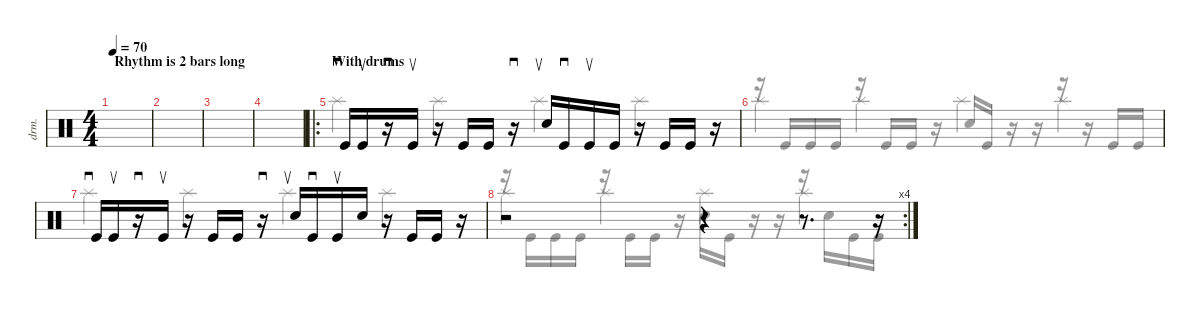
\defaultSystemsLayout 4
\hideDynamics
\bracketExtendMode nobrackets
\track ("Drumkit" "drm.") {instrument percussion}
\staff {score}
\articulation defaults
\voice
\ts (4 4)
\beaming (8 2 2 2 2)
\section ("" "Rhythm is 2 bars long")
\tempo 70
\clef neutral
\ks aminor
|
|
|
|
\ro
\section ("" "With drums ")
"Kick (hit)".16{sd beam Up} "Kick (hit)".16{su beam Up} r.16{sd beam Up} "Kick (hit)".16{su beam Up} r.16{beam Up} "Kick (hit)".16{beam Up} "Kick (hit)".16{beam Up} r.16{sd beam Up} "Snare (hit) 2".16{su beam Up} "Kick (hit)".16{sd beam Up} "Kick (hit)".16{su beam Up} "Kick (hit)".16{beam Up} r.16{beam Up} "Kick (hit)".16{beam Up} "Kick (hit)".16{beam Up} r.16{beam Up} |
|
"Kick (hit)".16{sd beam Up} "Kick (hit)".16{su beam Up} r.16{sd beam Up} "Kick (hit)".16{su beam Up} r.16{beam Up} "Kick (hit)".16{beam Up} "Kick (hit)".16{beam Up} r.16{sd beam Up} "Snare (hit) 2".16{su beam Up} "Kick (hit)".16{sd beam Up} "Kick (hit)".16{su beam Up} "Snare (hit) 2".16{beam Up} r.16{beam Up} "Kick (hit)".16{beam Up} "Kick (hit)".16{beam Up} r.16{beam Up} |
\rc 4
r.2 r.4 r.8{d} r.16
\voice
\clef neutral
\ottava regular
\simile none
\ks aminor
|
|
|
|
|
r.16{beam Up} "Kick (hit)".16{beam Up} "Kick (hit)".16{beam Up} "Kick (hit)".16{beam Up} r.16{beam Up} "Kick (hit)".16{beam Up} "Kick (hit)".16{beam Up} r.16{beam Up} "Snare (hit) 2".16{beam Up} "Kick (hit)".16{beam Up} r.16{beam Up} r.16{beam Up} r.16{beam Up} r.16{beam Up} "Kick (hit)".16{beam Up} "Kick (hit)".16{beam Up} |
|
r.16 "Kick (hit)".16 "Kick (hit)".16 "Kick (hit)".16 r.16 "Kick (hit)".16 "Kick (hit)".16 r.16 "Snare (hit) 2".16 "Kick (hit)".16 r.16 r.16 r.16 "Snare (hit) 2".16 "Kick (hit)".16 "Kick (hit)".16
\voice
\clef neutral
\ottava regular
\simile none
\ks aminor
|
|
|
|
"Splash (hit)".4{beam Down} "Splash (hit)".4{beam Down} "Splash (hit)".4{beam Down} "Splash (hit)".4{beam Down} |
"Splash (hit)".4{beam Down} "Splash (hit)".4{beam Down} "Splash (hit)".4{beam Down} "Splash (hit)".4{beam Down} |
"Splash (hit)".4{beam Down} "Splash (hit)".4{beam Down} "Splash (hit)".4{beam Down} "Splash (hit)".4{beam Down} |
"Splash (hit)".4 "Splash (hit)".4 "Splash (hit)".4 "Splash (hit)".4
